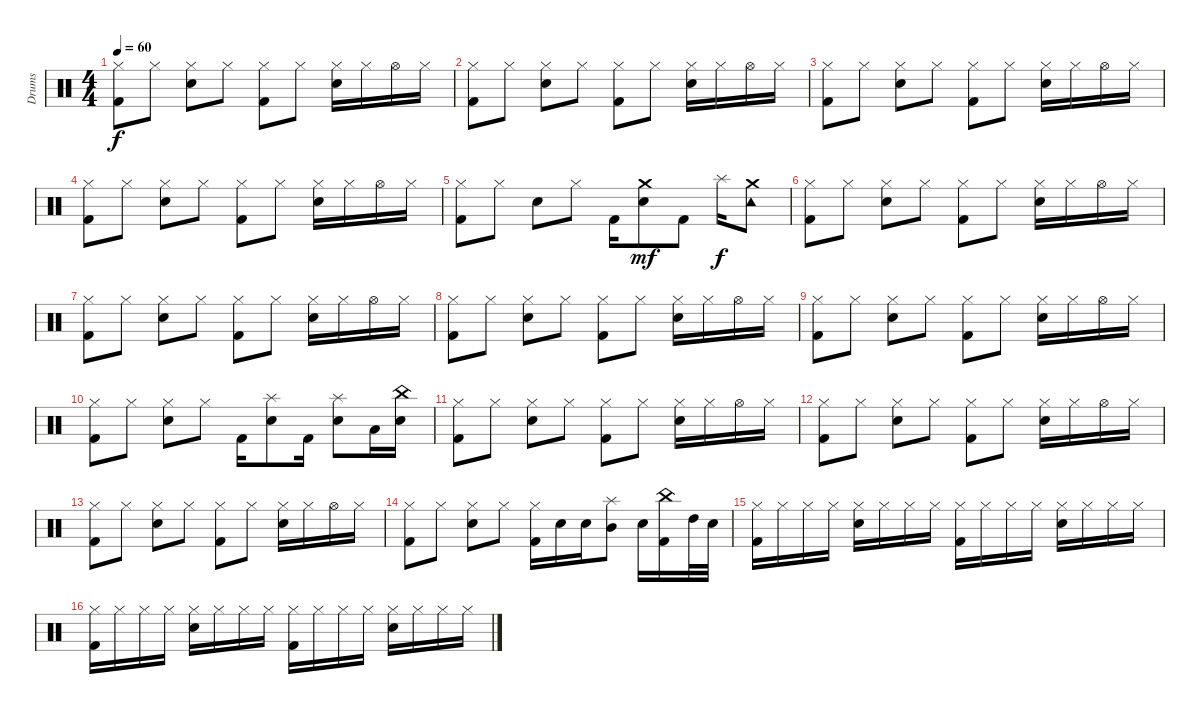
\track ("Drums" "Drums") {instrument percussion}
\staff {score}
\articulation defaults
\ts (4 4)
\tempo 60
\clef neutral
\ks c
("Kick (hit) 2" "Hi-Hat (closed)").8{dy f} "Hi-Hat (closed)".8 ("Snare (hit) 2" "Hi-Hat (closed)").8 "Hi-Hat (closed)".8 ("Kick (hit) 2" "Hi-Hat (closed)").8 "Hi-Hat (closed)".8 ("Snare (hit) 2" "Hi-Hat (closed)").16 "Hi-Hat (closed)".16 "Hi-Hat (open)".16 "Hi-Hat (closed)".16 |
("Kick (hit) 2" "Hi-Hat (closed)").8 "Hi-Hat (closed)".8 ("Snare (hit) 2" "Hi-Hat (closed)").8 "Hi-Hat (closed)".8 ("Kick (hit) 2" "Hi-Hat (closed)").8 "Hi-Hat (closed)".8 ("Snare (hit) 2" "Hi-Hat (closed)").16 "Hi-Hat (closed)".16 "Hi-Hat (open)".16 "Hi-Hat (closed)".16 |
("Kick (hit) 2" "Hi-Hat (closed)").8 "Hi-Hat (closed)".8 ("Snare (hit) 2" "Hi-Hat (closed)").8 "Hi-Hat (closed)".8 ("Kick (hit) 2" "Hi-Hat (closed)").8 "Hi-Hat (closed)".8 ("Snare (hit) 2" "Hi-Hat (closed)").16 "Hi-Hat (closed)".16 "Hi-Hat (open)".16 "Hi-Hat (closed)".16 |
("Kick (hit) 2" "Hi-Hat (closed)").8 "Hi-Hat (closed)".8 ("Snare (hit) 2" "Hi-Hat (closed)").8 "Hi-Hat (closed)".8 ("Kick (hit) 2" "Hi-Hat (closed)").8 "Hi-Hat (closed)".8 ("Snare (hit) 2" "Hi-Hat (closed)").16 "Hi-Hat (closed)".16 "Hi-Hat (open)".16 "Hi-Hat (closed)".16 |
("Kick (hit) 2" "Hi-Hat (closed)").8 "Hi-Hat (closed)".8 "Snare (hit) 2".8 "Hi-Hat (closed)".8 "Kick (hit) 2".16 ("Snare (hit) 2" "Crash medium (hit)").8{dy mf} "Kick (hit) 2".8 "Splash (hit)".16{dy f} ("Tambourine (hit)" "Crash medium (hit)").8 |
("Kick (hit) 2" "Hi-Hat (closed)").8 "Hi-Hat (closed)".8 ("Snare (hit) 2" "Hi-Hat (closed)").8 "Hi-Hat (closed)".8 ("Kick (hit) 2" "Hi-Hat (closed)").8 "Hi-Hat (closed)".8 ("Snare (hit) 2" "Hi-Hat (closed)").16 "Hi-Hat (closed)".16 "Hi-Hat (open)".16 "Hi-Hat (closed)".16 |
("Kick (hit) 2" "Hi-Hat (closed)").8 "Hi-Hat (closed)".8 ("Snare (hit) 2" "Hi-Hat (closed)").8 "Hi-Hat (closed)".8 ("Kick (hit) 2" "Hi-Hat (closed)").8 "Hi-Hat (closed)".8 ("Snare (hit) 2" "Hi-Hat (closed)").16 "Hi-Hat (closed)".16 "Hi-Hat (open)".16 "Hi-Hat (closed)".16 |
("Kick (hit) 2" "Hi-Hat (closed)").8 "Hi-Hat (closed)".8 ("Snare (hit) 2" "Hi-Hat (closed)").8 "Hi-Hat (closed)".8 ("Kick (hit) 2" "Hi-Hat (closed)").8 "Hi-Hat (closed)".8 ("Snare (hit) 2" "Hi-Hat (closed)").16 "Hi-Hat (closed)".16 "Hi-Hat (open)".16 "Hi-Hat (closed)".16 |
("Kick (hit) 2" "Hi-Hat (closed)").8 "Hi-Hat (closed)".8 ("Snare (hit) 2" "Hi-Hat (closed)").8 "Hi-Hat (closed)".8 ("Kick (hit) 2" "Hi-Hat (closed)").8 "Hi-Hat (closed)".8 ("Snare (hit) 2" "Hi-Hat (closed)").16 "Hi-Hat (closed)".16 "Hi-Hat (open)".16 "Hi-Hat (closed)".16 |
("Kick (hit) 2" "Hi-Hat (closed)").8 "Hi-Hat (closed)".8 ("Snare (hit) 2" "Hi-Hat (closed)").8 "Hi-Hat (closed)".8 "Kick (hit) 2".16 ("Snare (hit) 2" "Splash (hit)").8 "Kick (hit) 2".16 ("Snare (hit) 2" "Splash (hit)").8 "Low Tom (hit)".16 ("Snare (hit) 2" "China (hit)").16 |
("Kick (hit) 2" "Hi-Hat (closed)").8 "Hi-Hat (closed)".8 ("Snare (hit) 2" "Hi-Hat (closed)").8 "Hi-Hat (closed)".8 ("Kick (hit) 2" "Hi-Hat (closed)").8 "Hi-Hat (closed)".8 ("Snare (hit) 2" "Hi-Hat (closed)").16 "Hi-Hat (closed)".16 "Hi-Hat (open)".16 "Hi-Hat (closed)".16 |
("Kick (hit) 2" "Hi-Hat (closed)").8 "Hi-Hat (closed)".8 ("Snare (hit) 2" "Hi-Hat (closed)").8 "Hi-Hat (closed)".8 ("Kick (hit) 2" "Hi-Hat (closed)").8 "Hi-Hat (closed)".8 ("Snare (hit) 2" "Hi-Hat (closed)").16 "Hi-Hat (closed)".16 "Hi-Hat (open)".16 "Hi-Hat (closed)".16 |
("Kick (hit) 2" "Hi-Hat (closed)").8 "Hi-Hat (closed)".8 ("Snare (hit) 2" "Hi-Hat (closed)").8 "Hi-Hat (closed)".8 ("Kick (hit) 2" "Hi-Hat (closed)").8 "Hi-Hat (closed)".8 ("Snare (hit) 2" "Hi-Hat (closed)").16 "Hi-Hat (closed)".16 "Hi-Hat (open)".16 "Hi-Hat (closed)".16 |
("Kick (hit) 2" "Hi-Hat (closed)").8 "Hi-Hat (closed)".8 ("Snare (hit) 2" "Hi-Hat (closed)").8 "Hi-Hat (closed)".8 ("Kick (hit) 2" "Hi-Hat (closed)").16 "Snare (hit) 2".16 "Snare (hit) 2".16 ("Splash (hit)" "Mid Tom (hit)").8 "Snare (hit) 2".16 ("Kick (hit) 2" "China (hit)").16 "High Tom (hit)".32 "Snare (hit) 2".32 |
("Kick (hit) 2" "Hi-Hat (closed)").16 "Hi-Hat (closed)".16 "Hi-Hat (closed)".16 "Hi-Hat (closed)".16 ("Snare (hit) 2" "Hi-Hat (closed)").16 "Hi-Hat (closed)".16 "Hi-Hat (closed)".16 "Hi-Hat (closed)".16 ("Kick (hit) 2" "Hi-Hat (closed)").16 "Hi-Hat (closed)".16 "Hi-Hat (closed)".16 "Hi-Hat (closed)".16 ("Snare (hit) 2" "Hi-Hat (closed)").16 "Hi-Hat (closed)".16 "Hi-Hat (closed)".16 "Hi-Hat (closed)".16 |
("Kick (hit) 2" "Hi-Hat (closed)").16 "Hi-Hat (closed)".16 "Hi-Hat (closed)".16 "Hi-Hat (closed)".16 ("Snare (hit) 2" "Hi-Hat (closed)").16 "Hi-Hat (closed)".16 "Hi-Hat (closed)".16 "Hi-Hat (closed)".16 ("Kick (hit) 2" "Hi-Hat (closed)").16 "Hi-Hat (closed)".16 "Hi-Hat (closed)".16 "Hi-Hat (closed)".16 ("Snare (hit) 2" "Hi-Hat (closed)").16 "Hi-Hat (closed)".16 "Hi-Hat (closed)".16 "Hi-Hat (closed)".16
